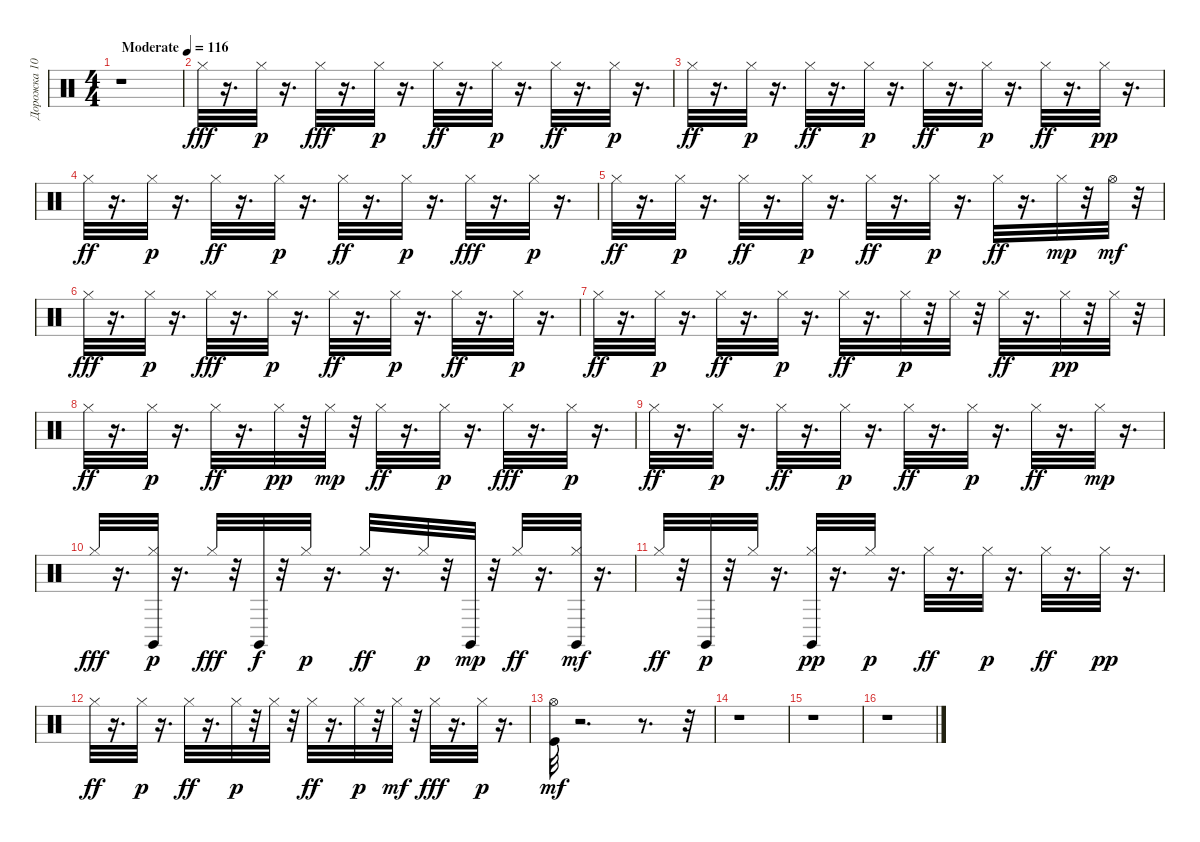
\track ("Дорожка 10" "Дорожка 10") {instrument percussion}
\staff {score}
\articulation defaults
\ts (4 4)
\tempo (116 "Moderate")
\clef neutral
\ks c
r.1{dy fff} |
"Hi-Hat (closed)".32 r.16{d} "Hi-Hat (closed)".32{dy p} r.16{d} "Hi-Hat (closed)".32{dy fff} r.16{d} "Hi-Hat (closed)".32{dy p} r.16{d} "Hi-Hat (closed)".32{dy ff} r.16{d} "Hi-Hat (closed)".32{dy p} r.16{d} "Hi-Hat (closed)".32{dy ff} r.16{d} "Hi-Hat (closed)".32{dy p} r.16{d} |
"Hi-Hat (closed)".32{dy ff} r.16{d} "Hi-Hat (closed)".32{dy p} r.16{d} "Hi-Hat (closed)".32{dy ff} r.16{d} "Hi-Hat (closed)".32{dy p} r.16{d} "Hi-Hat (closed)".32{dy ff} r.16{d} "Hi-Hat (closed)".32{dy p} r.16{d} "Hi-Hat (closed)".32{dy ff} r.16{d} "Hi-Hat (closed)".32{dy pp} r.16{d} |
"Hi-Hat (closed)".32{dy ff} r.16{d} "Hi-Hat (closed)".32{dy p} r.16{d} "Hi-Hat (closed)".32{dy ff} r.16{d} "Hi-Hat (closed)".32{dy p} r.16{d} "Hi-Hat (closed)".32{dy ff} r.16{d} "Hi-Hat (closed)".32{dy p} r.16{d} "Hi-Hat (closed)".32{dy fff} r.16{d} "Hi-Hat (closed)".32{dy p} r.16{d} |
"Hi-Hat (closed)".32{dy ff} r.16{d} "Hi-Hat (closed)".32{dy p} r.16{d} "Hi-Hat (closed)".32{dy ff} r.16{d} "Hi-Hat (closed)".32{dy p} r.16{d} "Hi-Hat (closed)".32{dy ff} r.16{d} "Hi-Hat (closed)".32{dy p} r.16{d} "Hi-Hat (closed)".32{dy ff} r.16{d} "Hi-Hat (closed)".32{dy mp} r.32 "Hi-Hat (open)".32{dy mf} r.32 |
"Hi-Hat (closed)".32{dy fff} r.16{d} "Hi-Hat (closed)".32{dy p} r.16{d} "Hi-Hat (closed)".32{dy fff} r.16{d} "Hi-Hat (closed)".32{dy p} r.16{d} "Hi-Hat (closed)".32{dy ff} r.16{d} "Hi-Hat (closed)".32{dy p} r.16{d} "Hi-Hat (closed)".32{dy ff} r.16{d} "Hi-Hat (closed)".32{dy p} r.16{d} |
"Hi-Hat (closed)".32{dy ff} r.16{d} "Hi-Hat (closed)".32{dy p} r.16{d} "Hi-Hat (closed)".32{dy ff} r.16{d} "Hi-Hat (closed)".32{dy p} r.16{d} "Hi-Hat (closed)".32{dy ff} r.16{d} "Hi-Hat (closed)".32{dy p} r.32 "Hi-Hat (closed)".32 r.32 "Hi-Hat (closed)".32{dy ff} r.16{d} "Hi-Hat (closed)".32{dy pp} r.32 "Hi-Hat (closed)".32 r.32 |
"Hi-Hat (closed)".32{dy ff} r.16{d} "Hi-Hat (closed)".32{dy p} r.16{d} "Hi-Hat (closed)".32{dy ff} r.16{d} "Hi-Hat (closed)".32{dy pp} r.32 "Hi-Hat (closed)".32{dy mp} r.32 "Hi-Hat (closed)".32{dy ff} r.16{d} "Hi-Hat (closed)".32{dy p} r.16{d} "Hi-Hat (closed)".32{dy fff} r.16{d} "Hi-Hat (closed)".32{dy p} r.16{d} |
"Hi-Hat (closed)".32{dy ff} r.16{d} "Hi-Hat (closed)".32{dy p} r.16{d} "Hi-Hat (closed)".32{dy ff} r.16{d} "Hi-Hat (closed)".32{dy p} r.16{d} "Hi-Hat (closed)".32{dy ff} r.16{d} "Hi-Hat (closed)".32{dy p} r.16{d} "Hi-Hat (closed)".32{dy ff} r.16{d} "Hi-Hat (closed)".32{dy mp} r.16{d} |
"Hi-Hat (closed)".32{dy fff} r.16{d} ("Hi-Hat (closed)" "Claves (hit)").32{dy p} r.16{d} "Hi-Hat (closed)".32{dy fff} r.32 "Claves (hit)".32{dy f} r.32 "Hi-Hat (closed)".32{dy p} r.16{d} "Hi-Hat (closed)".32{dy ff} r.16{d} "Hi-Hat (closed)".32{dy p} r.32 "Claves (hit)".32{dy mp} r.32 "Hi-Hat (closed)".32{dy ff} r.16{d} ("Hi-Hat (closed)" "Claves (hit)").32{dy mf} r.16{d} |
"Hi-Hat (closed)".32{dy ff} r.32 "Claves (hit)".32{dy p} r.32 "Hi-Hat (closed)".32 r.16{d} ("Hi-Hat (closed)" "Claves (hit)").32{dy pp} r.16{d} "Hi-Hat (closed)".32{dy p} r.16{d} "Hi-Hat (closed)".32{dy ff} r.16{d} "Hi-Hat (closed)".32{dy p} r.16{d} "Hi-Hat (closed)".32{dy ff} r.16{d} "Hi-Hat (closed)".32{dy pp} r.16{d} |
"Hi-Hat (closed)".32{dy ff} r.16{d} "Hi-Hat (closed)".32{dy p} r.16{d} "Hi-Hat (closed)".32{dy ff} r.16{d} "Hi-Hat (closed)".32{dy p} r.32 "Hi-Hat (closed)".32 r.32 "Hi-Hat (closed)".32{dy ff} r.16{d} "Hi-Hat (closed)".32{dy p} r.32 "Hi-Hat (closed)".32{dy mf} r.32 "Hi-Hat (closed)".32{dy fff} r.16{d} "Hi-Hat (closed)".32{dy p} r.16{d} |
("Kick (hit)" "Hi-Hat (open)").32{dy mf} r.2{d} r.8{d} r.32 |
r.1 |
r.1 |
r.1
